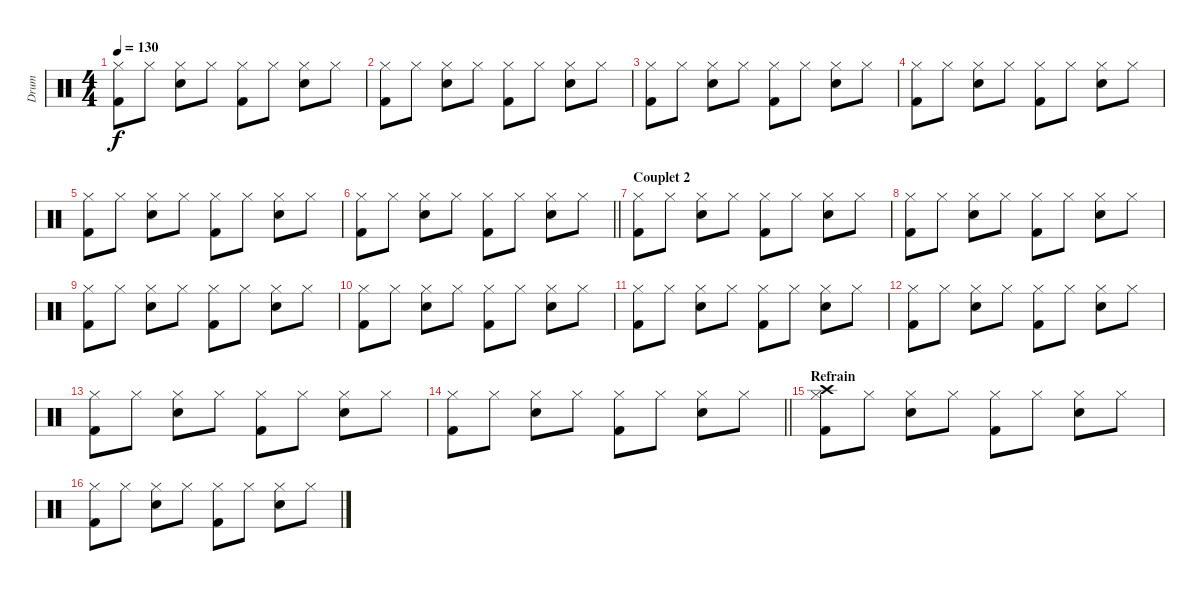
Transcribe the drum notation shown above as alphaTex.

\track ("Drum" "Drum") {instrument percussion}
\staff {score}
\articulation defaults
\ts (4 4)
\tempo 130
\clef neutral
\ks c
("Hi-Hat (closed)" "Kick (hit) 2").8{dy f} "Hi-Hat (closed)".8 ("Snare (hit) 2" "Hi-Hat (closed)").8 "Hi-Hat (closed)".8 ("Hi-Hat (closed)" "Kick (hit) 2").8 "Hi-Hat (closed)".8 ("Snare (hit) 2" "Hi-Hat (closed)").8 "Hi-Hat (closed)".8 |
("Hi-Hat (closed)" "Kick (hit) 2").8 "Hi-Hat (closed)".8 ("Snare (hit) 2" "Hi-Hat (closed)").8 "Hi-Hat (closed)".8 ("Hi-Hat (closed)" "Kick (hit) 2").8 "Hi-Hat (closed)".8 ("Snare (hit) 2" "Hi-Hat (closed)").8 "Hi-Hat (closed)".8 |
("Hi-Hat (closed)" "Kick (hit) 2").8 "Hi-Hat (closed)".8 ("Snare (hit) 2" "Hi-Hat (closed)").8 "Hi-Hat (closed)".8 ("Hi-Hat (closed)" "Kick (hit) 2").8 "Hi-Hat (closed)".8 ("Snare (hit) 2" "Hi-Hat (closed)").8 "Hi-Hat (closed)".8 |
("Hi-Hat (closed)" "Kick (hit) 2").8 "Hi-Hat (closed)".8 ("Snare (hit) 2" "Hi-Hat (closed)").8 "Hi-Hat (closed)".8 ("Hi-Hat (closed)" "Kick (hit) 2").8 "Hi-Hat (closed)".8 ("Snare (hit) 2" "Hi-Hat (closed)").8 "Hi-Hat (closed)".8 |
("Hi-Hat (closed)" "Kick (hit) 2").8 "Hi-Hat (closed)".8 ("Snare (hit) 2" "Hi-Hat (closed)").8 "Hi-Hat (closed)".8 ("Hi-Hat (closed)" "Kick (hit) 2").8 "Hi-Hat (closed)".8 ("Snare (hit) 2" "Hi-Hat (closed)").8 "Hi-Hat (closed)".8 |
\barLineRight lightlight
("Hi-Hat (closed)" "Kick (hit) 2").8 "Hi-Hat (closed)".8 ("Snare (hit) 2" "Hi-Hat (closed)").8 "Hi-Hat (closed)".8 ("Hi-Hat (closed)" "Kick (hit) 2").8 "Hi-Hat (closed)".8 ("Snare (hit) 2" "Hi-Hat (closed)").8 "Hi-Hat (closed)".8 |
\section ("" "Couplet 2")
("Hi-Hat (closed)" "Kick (hit) 2").8 "Hi-Hat (closed)".8 ("Snare (hit) 2" "Hi-Hat (closed)").8 "Hi-Hat (closed)".8 ("Hi-Hat (closed)" "Kick (hit) 2").8 "Hi-Hat (closed)".8 ("Snare (hit) 2" "Hi-Hat (closed)").8 "Hi-Hat (closed)".8 |
("Hi-Hat (closed)" "Kick (hit) 2").8 "Hi-Hat (closed)".8 ("Snare (hit) 2" "Hi-Hat (closed)").8 "Hi-Hat (closed)".8 ("Hi-Hat (closed)" "Kick (hit) 2").8 "Hi-Hat (closed)".8 ("Snare (hit) 2" "Hi-Hat (closed)").8 "Hi-Hat (closed)".8 |
("Hi-Hat (closed)" "Kick (hit) 2").8 "Hi-Hat (closed)".8 ("Snare (hit) 2" "Hi-Hat (closed)").8 "Hi-Hat (closed)".8 ("Hi-Hat (closed)" "Kick (hit) 2").8 "Hi-Hat (closed)".8 ("Snare (hit) 2" "Hi-Hat (closed)").8 "Hi-Hat (closed)".8 |
("Hi-Hat (closed)" "Kick (hit) 2").8 "Hi-Hat (closed)".8 ("Snare (hit) 2" "Hi-Hat (closed)").8 "Hi-Hat (closed)".8 ("Hi-Hat (closed)" "Kick (hit) 2").8 "Hi-Hat (closed)".8 ("Snare (hit) 2" "Hi-Hat (closed)").8 "Hi-Hat (closed)".8 |
("Hi-Hat (closed)" "Kick (hit) 2").8 "Hi-Hat (closed)".8 ("Snare (hit) 2" "Hi-Hat (closed)").8 "Hi-Hat (closed)".8 ("Hi-Hat (closed)" "Kick (hit) 2").8 "Hi-Hat (closed)".8 ("Snare (hit) 2" "Hi-Hat (closed)").8 "Hi-Hat (closed)".8 |
("Hi-Hat (closed)" "Kick (hit) 2").8 "Hi-Hat (closed)".8 ("Snare (hit) 2" "Hi-Hat (closed)").8 "Hi-Hat (closed)".8 ("Hi-Hat (closed)" "Kick (hit) 2").8 "Hi-Hat (closed)".8 ("Snare (hit) 2" "Hi-Hat (closed)").8 "Hi-Hat (closed)".8 |
("Hi-Hat (closed)" "Kick (hit) 2").8 "Hi-Hat (closed)".8 ("Snare (hit) 2" "Hi-Hat (closed)").8 "Hi-Hat (closed)".8 ("Hi-Hat (closed)" "Kick (hit) 2").8 "Hi-Hat (closed)".8 ("Snare (hit) 2" "Hi-Hat (closed)").8 "Hi-Hat (closed)".8 |
\barLineRight lightlight
("Hi-Hat (closed)" "Kick (hit) 2").8 "Hi-Hat (closed)".8 ("Snare (hit) 2" "Hi-Hat (closed)").8 "Hi-Hat (closed)".8 ("Hi-Hat (closed)" "Kick (hit) 2").8 "Hi-Hat (closed)".8 ("Snare (hit) 2" "Hi-Hat (closed)").8 "Hi-Hat (closed)".8 |
\section ("" "Refrain")
("Crash high (hit)" "Hi-Hat (closed)" "Kick (hit) 2").8 "Hi-Hat (closed)".8 ("Snare (hit) 2" "Hi-Hat (closed)").8 "Hi-Hat (closed)".8 ("Hi-Hat (closed)" "Kick (hit) 2").8 "Hi-Hat (closed)".8 ("Snare (hit) 2" "Hi-Hat (closed)").8 "Hi-Hat (closed)".8 |
("Hi-Hat (closed)" "Kick (hit) 2").8 "Hi-Hat (closed)".8 ("Snare (hit) 2" "Hi-Hat (closed)").8 "Hi-Hat (closed)".8 ("Hi-Hat (closed)" "Kick (hit) 2").8 "Hi-Hat (closed)".8 ("Snare (hit) 2" "Hi-Hat (closed)").8 "Hi-Hat (closed)".8
